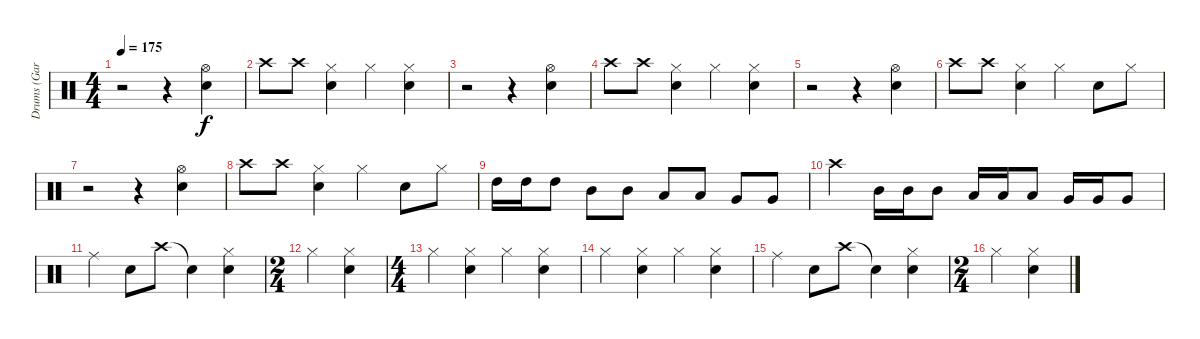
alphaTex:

\track ("Drums (Gar Samuelson)" "Drums (Gar") {instrument percussion}
\staff {score}
\articulation defaults
\ts (4 4)
\tempo 175
\clef neutral
\ks c
r.2{dy f} r.4 ("Hi-Hat (open)" "Snare (hit) 2").4 |
"Crash high (hit)".8 "Crash high (hit)".8 ("Hi-Hat (closed)" "Snare (hit) 2").4 "Hi-Hat (closed)".4 ("Hi-Hat (closed)" "Snare (hit) 2").4 |
r.2 r.4 ("Hi-Hat (open)" "Snare (hit) 2").4 |
"Crash high (hit)".8 "Crash high (hit)".8 ("Hi-Hat (closed)" "Snare (hit) 2").4 "Hi-Hat (closed)".4 ("Hi-Hat (closed)" "Snare (hit) 2").4 |
r.2 r.4 ("Hi-Hat (open)" "Snare (hit) 2").4 |
"Crash high (hit)".8 "Crash high (hit)".8 ("Hi-Hat (closed)" "Snare (hit) 2").4 "Hi-Hat (closed)".4 "Snare (hit) 2".8 "Hi-Hat (closed)".8 |
r.2 r.4 ("Hi-Hat (open)" "Snare (hit) 2").4 |
"Crash high (hit)".8 "Crash high (hit)".8 ("Hi-Hat (closed)" "Snare (hit) 2").4 "Hi-Hat (closed)".4 "Snare (hit) 2".8 "Hi-Hat (closed)".8 |
"High Tom (hit)".16 "High Tom (hit)".16 "High Tom (hit)".8 "Mid Tom (hit)".8 "Mid Tom (hit)".8 "Low Tom (hit)".8 "Low Tom (hit)".8 "Very Low Tom (hit)".8 "Very Low Tom (hit)".8 |
"Crash high (hit)".4 "Mid Tom (hit)".16 "Mid Tom (hit)".16 "Mid Tom (hit)".8 "Low Tom (hit)".16 "Low Tom (hit)".16 "Low Tom (hit)".8 "Very Low Tom (hit)".16 "Very Low Tom (hit)".16 "Very Low Tom (hit)".8 |
"Ride (middle)".4 "Snare (hit) 2".8 "Crash high (hit)".8 "Snare (hit)"{t}.4 ("Hi-Hat (closed)" "Snare (hit) 2").4 |
\ts (2 4)
"Hi-Hat (closed)".4 ("Hi-Hat (closed)" "Snare (hit) 2").4 |
\ts (4 4)
"Hi-Hat (closed)".4 ("Hi-Hat (closed)" "Snare (hit) 2").4 "Hi-Hat (closed)".4 ("Hi-Hat (closed)" "Snare (hit) 2").4 |
"Hi-Hat (closed)".4 ("Hi-Hat (closed)" "Snare (hit) 2").4 "Hi-Hat (closed)".4 ("Hi-Hat (closed)" "Snare (hit) 2").4 |
"Ride (middle)".4 "Snare (hit) 2".8 "Crash high (hit)".8 "Snare (hit)"{t}.4 ("Hi-Hat (closed)" "Snare (hit) 2").4 |
\ts (2 4)
"Hi-Hat (closed)".4 ("Hi-Hat (closed)" "Snare (hit) 2").4
